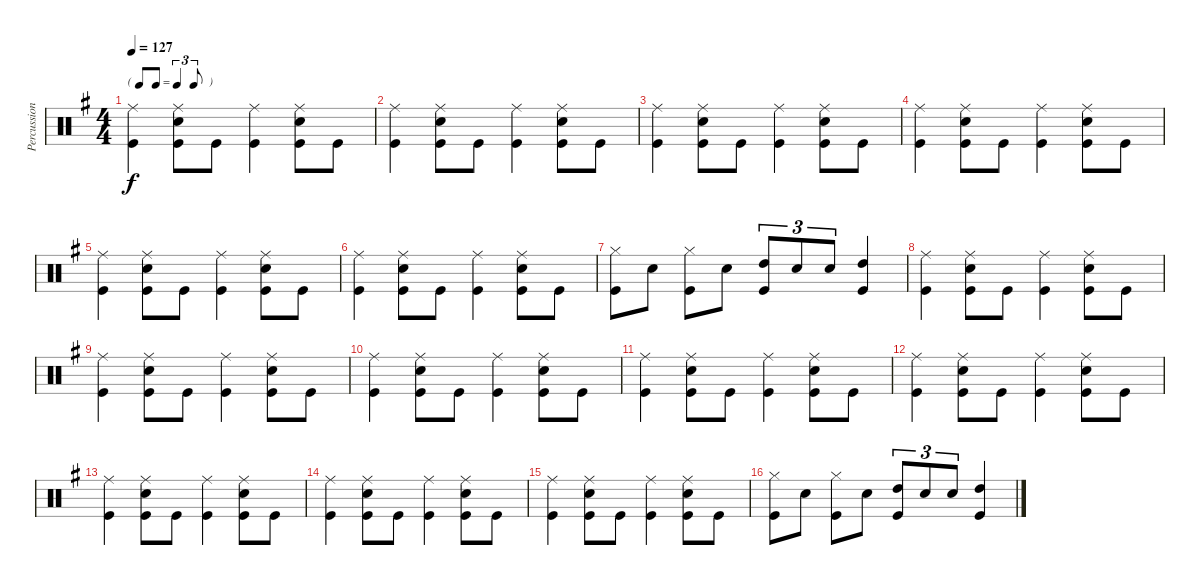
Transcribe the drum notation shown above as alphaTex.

\track ("Percussion" "Percussion") {instrument percussion}
\staff {score}
\articulation defaults
\ts (4 4)
\tf triplet8th
\tempo 127
\clef neutral
\ks g
("Ride (middle)" "Kick (hit)").4{dy f} ("Ride (middle)" "Snare (hit) 2" "Kick (hit)").8 "Kick (hit)".8 ("Ride (middle)" "Kick (hit)").4 ("Ride (middle)" "Snare (hit) 2" "Kick (hit)").8 "Kick (hit)".8 |
("Ride (middle)" "Kick (hit)").4 ("Ride (middle)" "Snare (hit) 2" "Kick (hit)").8 "Kick (hit)".8 ("Ride (middle)" "Kick (hit)").4 ("Ride (middle)" "Snare (hit) 2" "Kick (hit)").8 "Kick (hit)".8 |
("Ride (middle)" "Kick (hit)").4 ("Ride (middle)" "Snare (hit) 2" "Kick (hit)").8 "Kick (hit)".8 ("Ride (middle)" "Kick (hit)").4 ("Ride (middle)" "Snare (hit) 2" "Kick (hit)").8 "Kick (hit)".8 |
("Ride (middle)" "Kick (hit)").4 ("Ride (middle)" "Snare (hit) 2" "Kick (hit)").8 "Kick (hit)".8 ("Ride (middle)" "Kick (hit)").4 ("Ride (middle)" "Snare (hit) 2" "Kick (hit)").8 "Kick (hit)".8 |
("Ride (middle)" "Kick (hit)").4 ("Ride (middle)" "Snare (hit) 2" "Kick (hit)").8 "Kick (hit)".8 ("Ride (middle)" "Kick (hit)").4 ("Ride (middle)" "Snare (hit) 2" "Kick (hit)").8 "Kick (hit)".8 |
("Ride (middle)" "Kick (hit)").4 ("Ride (middle)" "Snare (hit) 2" "Kick (hit)").8 "Kick (hit)".8 ("Ride (middle)" "Kick (hit)").4 ("Ride (middle)" "Snare (hit) 2" "Kick (hit)").8 "Kick (hit)".8 |
("Hi-Hat (closed)" "Kick (hit)").8 "Snare (hit) 2".8 ("Hi-Hat (closed)" "Kick (hit)").8 "Snare (hit) 2".8 ("High Tom (hit)" "Kick (hit)").8{tu (3 2)} "Snare (hit) 2".8{tu (3 2)} "Snare (hit) 2".8{tu (3 2)} ("High Tom (hit)" "Kick (hit)").4 |
("Ride (middle)" "Kick (hit)").4 ("Ride (middle)" "Snare (hit) 2" "Kick (hit)").8 "Kick (hit)".8 ("Ride (middle)" "Kick (hit)").4 ("Ride (middle)" "Snare (hit) 2" "Kick (hit)").8 "Kick (hit)".8 |
("Ride (middle)" "Kick (hit)").4 ("Ride (middle)" "Snare (hit) 2" "Kick (hit)").8 "Kick (hit)".8 ("Ride (middle)" "Kick (hit)").4 ("Ride (middle)" "Snare (hit) 2" "Kick (hit)").8 "Kick (hit)".8 |
("Ride (middle)" "Kick (hit)").4 ("Ride (middle)" "Snare (hit) 2" "Kick (hit)").8 "Kick (hit)".8 ("Ride (middle)" "Kick (hit)").4 ("Ride (middle)" "Snare (hit) 2" "Kick (hit)").8 "Kick (hit)".8 |
("Ride (middle)" "Kick (hit)").4 ("Ride (middle)" "Snare (hit) 2" "Kick (hit)").8 "Kick (hit)".8 ("Ride (middle)" "Kick (hit)").4 ("Ride (middle)" "Snare (hit) 2" "Kick (hit)").8 "Kick (hit)".8 |
("Ride (middle)" "Kick (hit)").4 ("Ride (middle)" "Snare (hit) 2" "Kick (hit)").8 "Kick (hit)".8 ("Ride (middle)" "Kick (hit)").4 ("Ride (middle)" "Snare (hit) 2" "Kick (hit)").8 "Kick (hit)".8 |
("Ride (middle)" "Kick (hit)").4 ("Ride (middle)" "Snare (hit) 2" "Kick (hit)").8 "Kick (hit)".8 ("Ride (middle)" "Kick (hit)").4 ("Ride (middle)" "Snare (hit) 2" "Kick (hit)").8 "Kick (hit)".8 |
("Ride (middle)" "Kick (hit)").4 ("Ride (middle)" "Snare (hit) 2" "Kick (hit)").8 "Kick (hit)".8 ("Ride (middle)" "Kick (hit)").4 ("Ride (middle)" "Snare (hit) 2" "Kick (hit)").8 "Kick (hit)".8 |
("Ride (middle)" "Kick (hit)").4 ("Ride (middle)" "Snare (hit) 2" "Kick (hit)").8 "Kick (hit)".8 ("Ride (middle)" "Kick (hit)").4 ("Ride (middle)" "Snare (hit) 2" "Kick (hit)").8 "Kick (hit)".8 |
("Hi-Hat (closed)" "Kick (hit)").8 "Snare (hit) 2".8 ("Hi-Hat (closed)" "Kick (hit)").8 "Snare (hit) 2".8 ("High Tom (hit)" "Kick (hit)").8{tu (3 2)} "Snare (hit) 2".8{tu (3 2)} "Snare (hit) 2".8{tu (3 2)} ("High Tom (hit)" "Kick (hit)").4
